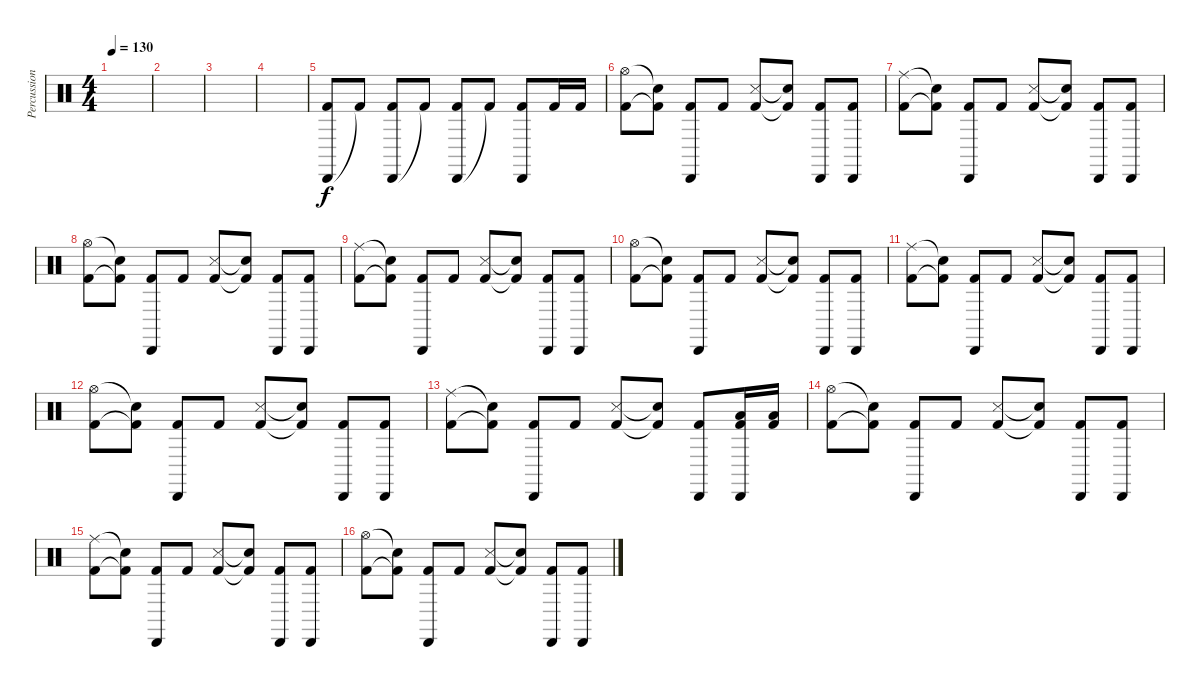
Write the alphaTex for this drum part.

\track ("Percussions" "Percussion") {instrument percussion}
\staff {score}
\articulation defaults
\ts (4 4)
\tempo 130
\clef neutral
\ks c
|
|
|
|
("Cabasa (hit)" "Kick (hit) 2").8 "Kick (hit) 2"{t}.8 ("Cabasa (hit)" "Kick (hit) 2").8 "Kick (hit) 2"{t}.8 ("Cabasa (hit)" "Kick (hit) 2").8 "Kick (hit) 2"{t}.8 ("Cabasa (hit)" "Kick (hit) 2").8 "Kick (hit) 2".16 "Kick (hit) 2".16 |
("Hi-Hat (open)" "Kick (hit) 2").8 ("Snare (hit)"{t} "Kick (hit) 2"{t}).8 ("Cabasa (hit)" "Kick (hit) 2").8 "Kick (hit) 2".8 ("Snare (side stick) 3" "Kick (hit) 2").8 ("Snare (hit)"{t} "Kick (hit) 2"{t}).8 ("Cabasa (hit)" "Kick (hit) 2").8 ("Cabasa (hit)" "Kick (hit) 2").8 |
("Ride (middle)" "Kick (hit) 2").8 ("Snare (hit)"{t} "Kick (hit) 2"{t}).8 ("Cabasa (hit)" "Kick (hit) 2").8 "Kick (hit) 2".8 ("Snare (side stick) 3" "Kick (hit) 2").8 ("Snare (hit)"{t} "Kick (hit) 2"{t}).8 ("Cabasa (hit)" "Kick (hit) 2").8 ("Cabasa (hit)" "Kick (hit) 2").8 |
("Hi-Hat (open)" "Kick (hit) 2").8 ("Snare (hit)"{t} "Kick (hit) 2"{t}).8 ("Cabasa (hit)" "Kick (hit) 2").8 "Kick (hit) 2".8 ("Snare (side stick) 3" "Kick (hit) 2").8 ("Snare (hit)"{t} "Kick (hit) 2"{t}).8 ("Cabasa (hit)" "Kick (hit) 2").8 ("Cabasa (hit)" "Kick (hit) 2").8 |
("Ride (middle)" "Kick (hit) 2").8 ("Snare (hit)"{t} "Kick (hit) 2"{t}).8 ("Cabasa (hit)" "Kick (hit) 2").8 "Kick (hit) 2".8 ("Snare (side stick) 3" "Kick (hit) 2").8 ("Snare (hit)"{t} "Kick (hit) 2"{t}).8 ("Cabasa (hit)" "Kick (hit) 2").8 ("Cabasa (hit)" "Kick (hit) 2").8 |
("Hi-Hat (open)" "Kick (hit) 2").8 ("Snare (hit)"{t} "Kick (hit) 2"{t}).8 ("Cabasa (hit)" "Kick (hit) 2").8 "Kick (hit) 2".8 ("Snare (side stick) 3" "Kick (hit) 2").8 ("Snare (hit)"{t} "Kick (hit) 2"{t}).8 ("Cabasa (hit)" "Kick (hit) 2").8 ("Cabasa (hit)" "Kick (hit) 2").8 |
("Ride (middle)" "Kick (hit) 2").8 ("Snare (hit)"{t} "Kick (hit) 2"{t}).8 ("Cabasa (hit)" "Kick (hit) 2").8 "Kick (hit) 2".8 ("Snare (side stick) 3" "Kick (hit) 2").8 ("Snare (hit)"{t} "Kick (hit) 2"{t}).8 ("Cabasa (hit)" "Kick (hit) 2").8 ("Cabasa (hit)" "Kick (hit) 2").8 |
("Hi-Hat (open)" "Kick (hit) 2").8 ("Snare (hit)"{t} "Kick (hit) 2"{t}).8 ("Cabasa (hit)" "Kick (hit) 2").8 "Kick (hit) 2".8 ("Snare (side stick) 3" "Kick (hit) 2").8 ("Snare (hit)"{t} "Kick (hit) 2"{t}).8 ("Cabasa (hit)" "Kick (hit) 2").8 ("Cabasa (hit)" "Kick (hit) 2").8 |
("Ride (middle)" "Kick (hit) 2").8 ("Snare (hit)"{t} "Kick (hit) 2"{t}).8 ("Cabasa (hit)" "Kick (hit) 2").8 "Kick (hit) 2".8 ("Snare (side stick) 3" "Kick (hit) 2").8 ("Snare (hit)"{t} "Kick (hit) 2"{t}).8 ("Cabasa (hit)" "Kick (hit) 2").8 ("Cabasa (hit)" "Low Tom (hit)" "Kick (hit) 2").16 ("Low Tom (hit)" "Kick (hit) 2").16 |
("Hi-Hat (open)" "Kick (hit) 2").8 ("Snare (hit)"{t} "Kick (hit) 2"{t}).8 ("Cabasa (hit)" "Kick (hit) 2").8 "Kick (hit) 2".8 ("Snare (side stick) 3" "Kick (hit) 2").8 ("Snare (hit)"{t} "Kick (hit) 2"{t}).8 ("Cabasa (hit)" "Kick (hit) 2").8 ("Cabasa (hit)" "Kick (hit) 2").8 |
("Ride (middle)" "Kick (hit) 2").8 ("Snare (hit)"{t} "Kick (hit) 2"{t}).8 ("Cabasa (hit)" "Kick (hit) 2").8 "Kick (hit) 2".8 ("Snare (side stick) 3" "Kick (hit) 2").8 ("Snare (hit)"{t} "Kick (hit) 2"{t}).8 ("Cabasa (hit)" "Kick (hit) 2").8 ("Cabasa (hit)" "Kick (hit) 2").8 |
("Hi-Hat (open)" "Kick (hit) 2").8 ("Snare (hit)"{t} "Kick (hit) 2"{t}).8 ("Cabasa (hit)" "Kick (hit) 2").8 "Kick (hit) 2".8 ("Snare (side stick) 3" "Kick (hit) 2").8 ("Snare (hit)"{t} "Kick (hit) 2"{t}).8 ("Cabasa (hit)" "Kick (hit) 2").8 ("Cabasa (hit)" "Kick (hit) 2").8
